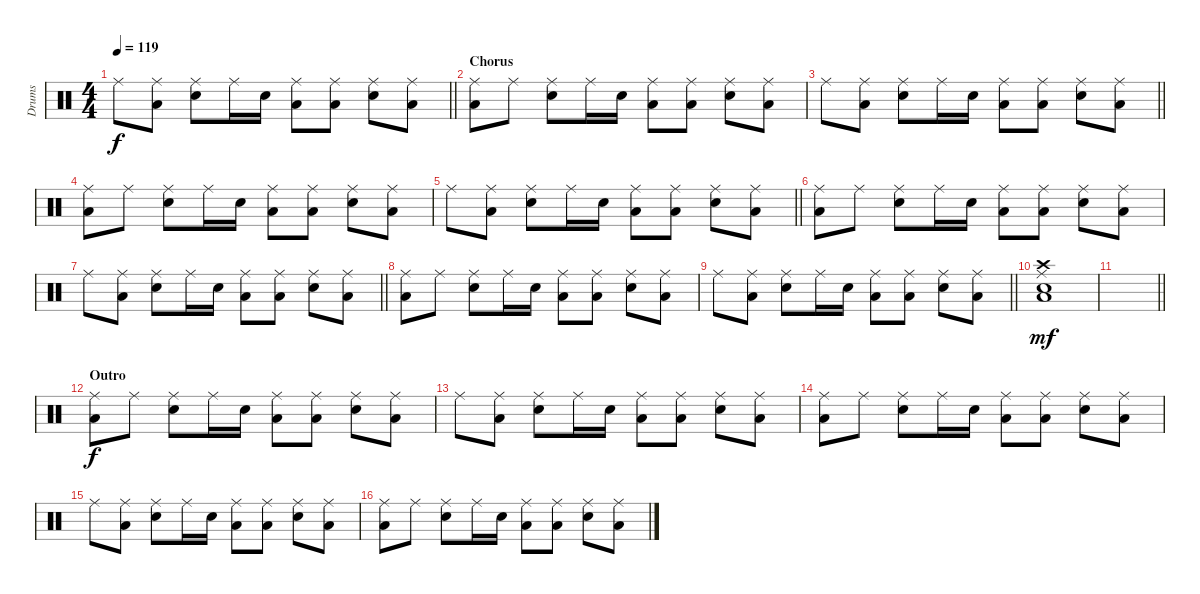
\track ("Drums" "Drums") {instrument percussion}
\staff {score}
\articulation defaults
\ts (4 4)
\tempo 119
\clef neutral
\barLineRight lightlight
\ks c "Ride (middle)".8{dy f}
("Ride (middle)" "Low Floor Tom (hit)").8 ("Ride (middle)" "Electric Snare (hit)").8 "Ride (middle)".16 "Electric Snare (hit)".16 ("Ride (middle)" "Low Floor Tom (hit)").8 ("Ride (middle)" "Low Floor Tom (hit)").8 ("Ride (middle)" "Electric Snare (hit)").8 ("Ride (middle)" "Low Floor Tom (hit)").8 |
\section ("" "Chorus")
("Ride (middle)" "Low Floor Tom (hit)").8 "Ride (middle)".8 ("Ride (middle)" "Electric Snare (hit)").8 "Ride (middle)".16 "Electric Snare (hit)".16 ("Ride (middle)" "Low Floor Tom (hit)").8 ("Ride (middle)" "Low Floor Tom (hit)").8 ("Ride (middle)" "Electric Snare (hit)").8 ("Ride (middle)" "Low Floor Tom (hit)").8 |
\barLineRight lightlight "Ride (middle)".8
("Ride (middle)" "Low Floor Tom (hit)").8 ("Ride (middle)" "Electric Snare (hit)").8 "Ride (middle)".16 "Electric Snare (hit)".16 ("Ride (middle)" "Low Floor Tom (hit)").8 ("Ride (middle)" "Low Floor Tom (hit)").8 ("Ride (middle)" "Electric Snare (hit)").8 ("Ride (middle)" "Low Floor Tom (hit)").8 |
("Ride (middle)" "Low Floor Tom (hit)").8 "Ride (middle)".8 ("Ride (middle)" "Electric Snare (hit)").8 "Ride (middle)".16 "Electric Snare (hit)".16 ("Ride (middle)" "Low Floor Tom (hit)").8 ("Ride (middle)" "Low Floor Tom (hit)").8 ("Ride (middle)" "Electric Snare (hit)").8 ("Ride (middle)" "Low Floor Tom (hit)").8 |
\barLineRight lightlight "Ride (middle)".8
("Ride (middle)" "Low Floor Tom (hit)").8 ("Ride (middle)" "Electric Snare (hit)").8 "Ride (middle)".16 "Electric Snare (hit)".16 ("Ride (middle)" "Low Floor Tom (hit)").8 ("Ride (middle)" "Low Floor Tom (hit)").8 ("Ride (middle)" "Electric Snare (hit)").8 ("Ride (middle)" "Low Floor Tom (hit)").8 |
("Ride (middle)" "Low Floor Tom (hit)").8 "Ride (middle)".8 ("Ride (middle)" "Electric Snare (hit)").8 "Ride (middle)".16 "Electric Snare (hit)".16 ("Ride (middle)" "Low Floor Tom (hit)").8 ("Ride (middle)" "Low Floor Tom (hit)").8 ("Ride (middle)" "Electric Snare (hit)").8 ("Ride (middle)" "Low Floor Tom (hit)").8 |
\barLineRight lightlight "Ride (middle)".8
("Ride (middle)" "Low Floor Tom (hit)").8 ("Ride (middle)" "Electric Snare (hit)").8 "Ride (middle)".16 "Electric Snare (hit)".16 ("Ride (middle)" "Low Floor Tom (hit)").8 ("Ride (middle)" "Low Floor Tom (hit)").8 ("Ride (middle)" "Electric Snare (hit)").8 ("Ride (middle)" "Low Floor Tom (hit)").8 |
("Ride (middle)" "Low Floor Tom (hit)").8 "Ride (middle)".8 ("Ride (middle)" "Electric Snare (hit)").8 "Ride (middle)".16 "Electric Snare (hit)".16 ("Ride (middle)" "Low Floor Tom (hit)").8 ("Ride (middle)" "Low Floor Tom (hit)").8 ("Ride (middle)" "Electric Snare (hit)").8 ("Ride (middle)" "Low Floor Tom (hit)").8 |
\barLineRight lightlight "Ride (middle)".8
("Ride (middle)" "Low Floor Tom (hit)").8 ("Ride (middle)" "Electric Snare (hit)").8 "Ride (middle)".16 "Electric Snare (hit)".16 ("Ride (middle)" "Low Floor Tom (hit)").8 ("Ride (middle)" "Low Floor Tom (hit)").8 ("Ride (middle)" "Electric Snare (hit)").8 ("Ride (middle)" "Low Floor Tom (hit)").8 |
("Ride (middle)" "Crash high (hit)" "Electric Snare (hit)" "Low Floor Tom (hit)").1{dy mf} |
\barLineRight lightlight
|
\section ("" "Outro")
("Ride (middle)" "Low Floor Tom (hit)").8{dy f} "Ride (middle)".8 ("Ride (middle)" "Electric Snare (hit)").8 "Ride (middle)".16 "Electric Snare (hit)".16 ("Ride (middle)" "Low Floor Tom (hit)").8 ("Ride (middle)" "Low Floor Tom (hit)").8 ("Ride (middle)" "Electric Snare (hit)").8 ("Ride (middle)" "Low Floor Tom (hit)").8 |
"Ride (middle)".8 ("Ride (middle)" "Low Floor Tom (hit)").8 ("Ride (middle)" "Electric Snare (hit)").8 "Ride (middle)".16 "Electric Snare (hit)".16 ("Ride (middle)" "Low Floor Tom (hit)").8 ("Ride (middle)" "Low Floor Tom (hit)").8 ("Ride (middle)" "Electric Snare (hit)").8 ("Ride (middle)" "Low Floor Tom (hit)").8 |
("Ride (middle)" "Low Floor Tom (hit)").8 "Ride (middle)".8 ("Ride (middle)" "Electric Snare (hit)").8 "Ride (middle)".16 "Electric Snare (hit)".16 ("Ride (middle)" "Low Floor Tom (hit)").8 ("Ride (middle)" "Low Floor Tom (hit)").8 ("Ride (middle)" "Electric Snare (hit)").8 ("Ride (middle)" "Low Floor Tom (hit)").8 |
"Ride (middle)".8 ("Ride (middle)" "Low Floor Tom (hit)").8 ("Ride (middle)" "Electric Snare (hit)").8 "Ride (middle)".16 "Electric Snare (hit)".16 ("Ride (middle)" "Low Floor Tom (hit)").8 ("Ride (middle)" "Low Floor Tom (hit)").8 ("Ride (middle)" "Electric Snare (hit)").8 ("Ride (middle)" "Low Floor Tom (hit)").8 |
("Ride (middle)" "Low Floor Tom (hit)").8 "Ride (middle)".8 ("Ride (middle)" "Electric Snare (hit)").8 "Ride (middle)".16 "Electric Snare (hit)".16 ("Ride (middle)" "Low Floor Tom (hit)").8 ("Ride (middle)" "Low Floor Tom (hit)").8 ("Ride (middle)" "Electric Snare (hit)").8 ("Ride (middle)" "Low Floor Tom (hit)").8
